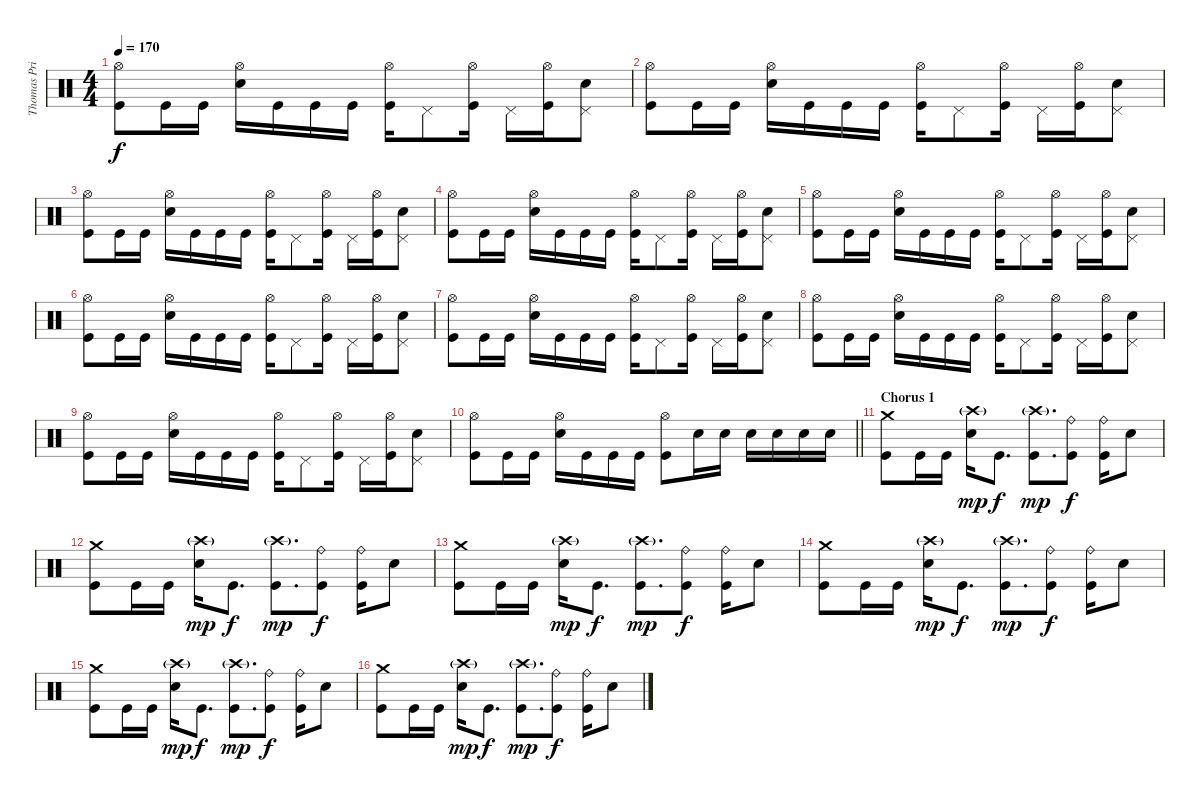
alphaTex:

\track ("Thomas Pridgen [Drum]" "Thomas Pri") {instrument percussion}
\staff {score}
\articulation defaults
\ts (4 4)
\tempo 170
\clef neutral
\ks c
("Hi-Hat (open)" "Kick (hit)").8{dy f} "Kick (hit)".16 "Kick (hit)".16 ("Hi-Hat (open)" "Electric Snare (hit)").16 "Kick (hit)".16 "Kick (hit)".16 "Kick (hit)".16 ("Hi-Hat (open)" "Kick (hit)").16 "Pedal Hi-Hat (hit)".8 ("Hi-Hat (open)" "Kick (hit)").16 "Pedal Hi-Hat (hit)".16 ("Hi-Hat (open)" "Kick (hit)").16 ("Pedal Hi-Hat (hit)" "Electric Snare (hit)").8 |
("Hi-Hat (open)" "Kick (hit)").8 "Kick (hit)".16 "Kick (hit)".16 ("Hi-Hat (open)" "Electric Snare (hit)").16 "Kick (hit)".16 "Kick (hit)".16 "Kick (hit)".16 ("Hi-Hat (open)" "Kick (hit)").16 "Pedal Hi-Hat (hit)".8 ("Hi-Hat (open)" "Kick (hit)").16 "Pedal Hi-Hat (hit)".16 ("Hi-Hat (open)" "Kick (hit)").16 ("Pedal Hi-Hat (hit)" "Electric Snare (hit)").8 |
("Hi-Hat (open)" "Kick (hit)").8 "Kick (hit)".16 "Kick (hit)".16 ("Hi-Hat (open)" "Electric Snare (hit)").16 "Kick (hit)".16 "Kick (hit)".16 "Kick (hit)".16 ("Hi-Hat (open)" "Kick (hit)").16 "Pedal Hi-Hat (hit)".8 ("Hi-Hat (open)" "Kick (hit)").16 "Pedal Hi-Hat (hit)".16 ("Hi-Hat (open)" "Kick (hit)").16 ("Pedal Hi-Hat (hit)" "Electric Snare (hit)").8 |
("Hi-Hat (open)" "Kick (hit)").8 "Kick (hit)".16 "Kick (hit)".16 ("Hi-Hat (open)" "Electric Snare (hit)").16 "Kick (hit)".16 "Kick (hit)".16 "Kick (hit)".16 ("Hi-Hat (open)" "Kick (hit)").16 "Pedal Hi-Hat (hit)".8 ("Hi-Hat (open)" "Kick (hit)").16 "Pedal Hi-Hat (hit)".16 ("Hi-Hat (open)" "Kick (hit)").16 ("Pedal Hi-Hat (hit)" "Electric Snare (hit)").8 |
("Hi-Hat (open)" "Kick (hit)").8 "Kick (hit)".16 "Kick (hit)".16 ("Hi-Hat (open)" "Electric Snare (hit)").16 "Kick (hit)".16 "Kick (hit)".16 "Kick (hit)".16 ("Hi-Hat (open)" "Kick (hit)").16 "Pedal Hi-Hat (hit)".8 ("Hi-Hat (open)" "Kick (hit)").16 "Pedal Hi-Hat (hit)".16 ("Hi-Hat (open)" "Kick (hit)").16 ("Pedal Hi-Hat (hit)" "Electric Snare (hit)").8 |
("Hi-Hat (open)" "Kick (hit)").8 "Kick (hit)".16 "Kick (hit)".16 ("Hi-Hat (open)" "Electric Snare (hit)").16 "Kick (hit)".16 "Kick (hit)".16 "Kick (hit)".16 ("Hi-Hat (open)" "Kick (hit)").16 "Pedal Hi-Hat (hit)".8 ("Hi-Hat (open)" "Kick (hit)").16 "Pedal Hi-Hat (hit)".16 ("Hi-Hat (open)" "Kick (hit)").16 ("Pedal Hi-Hat (hit)" "Electric Snare (hit)").8 |
("Hi-Hat (open)" "Kick (hit)").8 "Kick (hit)".16 "Kick (hit)".16 ("Hi-Hat (open)" "Electric Snare (hit)").16 "Kick (hit)".16 "Kick (hit)".16 "Kick (hit)".16 ("Hi-Hat (open)" "Kick (hit)").16 "Pedal Hi-Hat (hit)".8 ("Hi-Hat (open)" "Kick (hit)").16 "Pedal Hi-Hat (hit)".16 ("Hi-Hat (open)" "Kick (hit)").16 ("Pedal Hi-Hat (hit)" "Electric Snare (hit)").8 |
("Hi-Hat (open)" "Kick (hit)").8 "Kick (hit)".16 "Kick (hit)".16 ("Hi-Hat (open)" "Electric Snare (hit)").16 "Kick (hit)".16 "Kick (hit)".16 "Kick (hit)".16 ("Hi-Hat (open)" "Kick (hit)").16 "Pedal Hi-Hat (hit)".8 ("Hi-Hat (open)" "Kick (hit)").16 "Pedal Hi-Hat (hit)".16 ("Hi-Hat (open)" "Kick (hit)").16 ("Pedal Hi-Hat (hit)" "Electric Snare (hit)").8 |
("Hi-Hat (open)" "Kick (hit)").8 "Kick (hit)".16 "Kick (hit)".16 ("Hi-Hat (open)" "Electric Snare (hit)").16 "Kick (hit)".16 "Kick (hit)".16 "Kick (hit)".16 ("Hi-Hat (open)" "Kick (hit)").16 "Pedal Hi-Hat (hit)".8 ("Hi-Hat (open)" "Kick (hit)").16 "Pedal Hi-Hat (hit)".16 ("Hi-Hat (open)" "Kick (hit)").16 ("Pedal Hi-Hat (hit)" "Electric Snare (hit)").8 |
\barLineRight lightlight
("Hi-Hat (open)" "Kick (hit)").8 "Kick (hit)".16 "Kick (hit)".16 ("Hi-Hat (open)" "Electric Snare (hit)").16 "Kick (hit)".16 "Kick (hit)".16 "Kick (hit)".16 ("Hi-Hat (open)" "Kick (hit)").8 "Electric Snare (hit)".16 "Electric Snare (hit)".16 "Electric Snare (hit)".16 "Electric Snare (hit)".16 "Electric Snare (hit)".16 "Electric Snare (hit)".16 |
\section ("" "Chorus 1")
("Crash medium (hit)" "Kick (hit)").8 "Kick (hit)".16 "Kick (hit)".16 ("Crash high (hit)"{g} "Electric Snare (hit)").16{dy mp} "Kick (hit)".8{d dy f} ("Crash high (hit)"{g} "Kick (hit)").8{d dy mp} ("Ride (bell)" "Kick (hit)").8{dy f} ("Ride (bell)" "Kick (hit)").16 "Electric Snare (hit)".8 |
("Crash medium (hit)" "Kick (hit)").8 "Kick (hit)".16 "Kick (hit)".16 ("Crash high (hit)"{g} "Electric Snare (hit)").16{dy mp} "Kick (hit)".8{d dy f} ("Crash high (hit)"{g} "Kick (hit)").8{d dy mp} ("Ride (bell)" "Kick (hit)").8{dy f} ("Ride (bell)" "Kick (hit)").16 "Electric Snare (hit)".8 |
("Crash medium (hit)" "Kick (hit)").8 "Kick (hit)".16 "Kick (hit)".16 ("Crash high (hit)"{g} "Electric Snare (hit)").16{dy mp} "Kick (hit)".8{d dy f} ("Crash high (hit)"{g} "Kick (hit)").8{d dy mp} ("Ride (bell)" "Kick (hit)").8{dy f} ("Ride (bell)" "Kick (hit)").16 "Electric Snare (hit)".8 |
("Crash medium (hit)" "Kick (hit)").8 "Kick (hit)".16 "Kick (hit)".16 ("Crash high (hit)"{g} "Electric Snare (hit)").16{dy mp} "Kick (hit)".8{d dy f} ("Crash high (hit)"{g} "Kick (hit)").8{d dy mp} ("Ride (bell)" "Kick (hit)").8{dy f} ("Ride (bell)" "Kick (hit)").16 "Electric Snare (hit)".8 |
("Crash medium (hit)" "Kick (hit)").8 "Kick (hit)".16 "Kick (hit)".16 ("Crash high (hit)"{g} "Electric Snare (hit)").16{dy mp} "Kick (hit)".8{d dy f} ("Crash high (hit)"{g} "Kick (hit)").8{d dy mp} ("Ride (bell)" "Kick (hit)").8{dy f} ("Ride (bell)" "Kick (hit)").16 "Electric Snare (hit)".8 |
("Crash medium (hit)" "Kick (hit)").8 "Kick (hit)".16 "Kick (hit)".16 ("Crash high (hit)"{g} "Electric Snare (hit)").16{dy mp} "Kick (hit)".8{d dy f} ("Crash high (hit)"{g} "Kick (hit)").8{d dy mp} ("Ride (bell)" "Kick (hit)").8{dy f} ("Ride (bell)" "Kick (hit)").16 "Electric Snare (hit)".8
